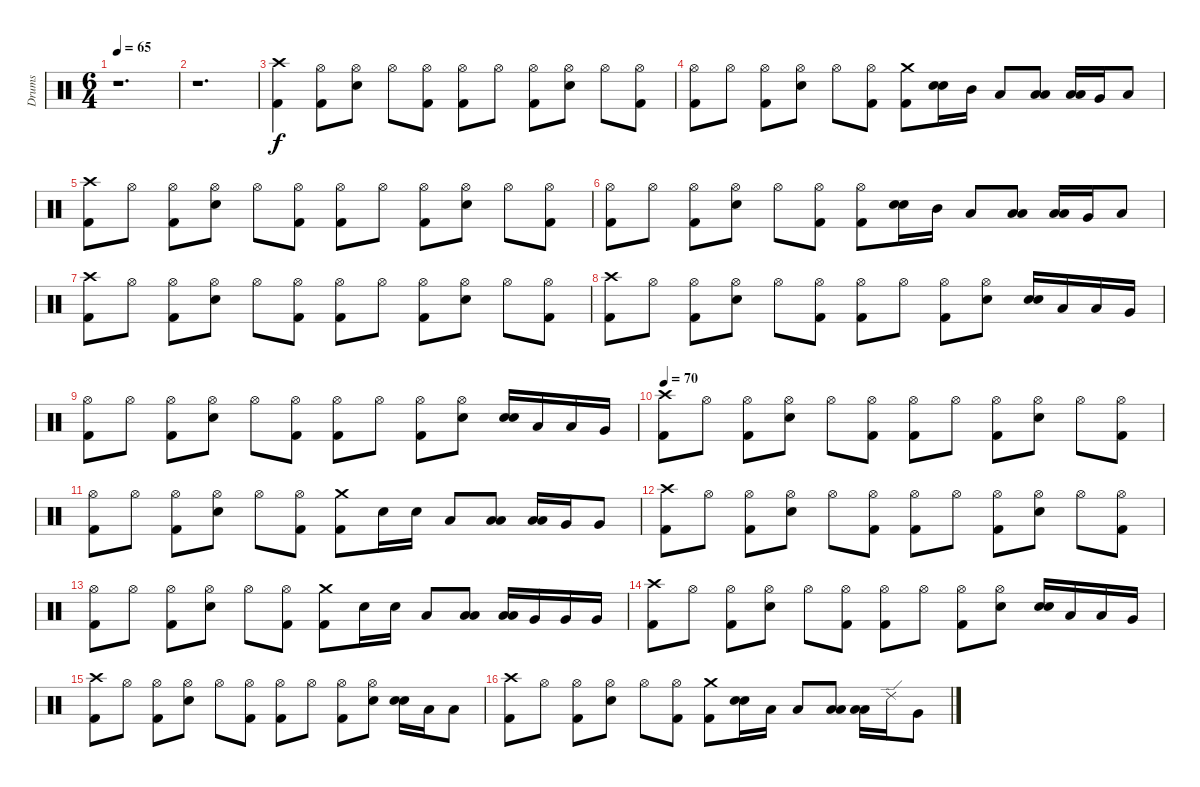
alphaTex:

\track ("Drums" "Drums") {instrument percussion}
\staff {score}
\articulation defaults
\ts (6 4)
\tempo 65
\clef neutral
\ks c
r.1{d dy f} |
r.1{d} |
("Crash high (hit)" "Kick (hit) 2").4 ("Hi-Hat (open)" "Kick (hit) 2").8 ("Hi-Hat (open)" "Electric Snare (hit)").8 "Hi-Hat (open)".8 ("Hi-Hat (open)" "Kick (hit) 2").8 ("Hi-Hat (open)" "Kick (hit) 2").8 "Hi-Hat (open)".8 ("Hi-Hat (open)" "Kick (hit) 2").8 ("Hi-Hat (open)" "Electric Snare (hit)").8 "Hi-Hat (open)".8 ("Hi-Hat (open)" "Kick (hit) 2").8 |
("Hi-Hat (open)" "Kick (hit) 2").8 "Hi-Hat (open)".8 ("Hi-Hat (open)" "Kick (hit) 2").8 ("Hi-Hat (open)" "Electric Snare (hit)").8 "Hi-Hat (open)".8 ("Hi-Hat (open)" "Kick (hit) 2").8 ("Crash medium (hit)" "Kick (hit) 2").8 ("Electric Snare (hit)" "Electric Snare (hit)").16{bu 120} "Mid Tom (hit)".16 "Low Tom (hit)".8 ("Low Tom (hit)" "Low Tom (hit)").8{bu 120} ("Low Tom (hit)" "Low Tom (hit)").16{bu 120} "Very Low Tom (hit)".16 "Low Floor Tom (hit)".8 |
("Crash high (hit)" "Kick (hit) 2").8 "Hi-Hat (open)".8 ("Hi-Hat (open)" "Kick (hit) 2").8 ("Hi-Hat (open)" "Electric Snare (hit)").8 "Hi-Hat (open)".8 ("Hi-Hat (open)" "Kick (hit) 2").8 ("Hi-Hat (open)" "Kick (hit) 2").8 "Hi-Hat (open)".8 ("Hi-Hat (open)" "Kick (hit) 2").8 ("Hi-Hat (open)" "Electric Snare (hit)").8 "Hi-Hat (open)".8 ("Hi-Hat (open)" "Kick (hit) 2").8 |
("Hi-Hat (open)" "Kick (hit) 2").8 "Hi-Hat (open)".8 ("Hi-Hat (open)" "Kick (hit) 2").8 ("Hi-Hat (open)" "Electric Snare (hit)").8 "Hi-Hat (open)".8 ("Hi-Hat (open)" "Kick (hit) 2").8 ("Hi-Hat (open)" "Kick (hit) 2").8 ("Electric Snare (hit)" "Electric Snare (hit)").16{bu 120} "Mid Tom (hit)".16 "Low Tom (hit)".8 ("Low Tom (hit)" "Low Tom (hit)").8{bu 120} ("Low Tom (hit)" "Low Tom (hit)").16{bu 120} "Very Low Tom (hit)".16 "Low Floor Tom (hit)".8 |
("Crash high (hit)" "Kick (hit) 2").8 "Hi-Hat (open)".8 ("Hi-Hat (open)" "Kick (hit) 2").8 ("Hi-Hat (open)" "Electric Snare (hit)").8 "Hi-Hat (open)".8 ("Hi-Hat (open)" "Kick (hit) 2").8 ("Hi-Hat (open)" "Kick (hit) 2").8 "Hi-Hat (open)".8 ("Hi-Hat (open)" "Kick (hit) 2").8 ("Hi-Hat (open)" "Electric Snare (hit)").8 "Hi-Hat (open)".8 ("Hi-Hat (open)" "Kick (hit) 2").8 |
("Crash high (hit)" "Kick (hit) 2").8 "Hi-Hat (open)".8 ("Hi-Hat (open)" "Kick (hit) 2").8 ("Hi-Hat (open)" "Electric Snare (hit)").8 "Hi-Hat (open)".8 ("Hi-Hat (open)" "Kick (hit) 2").8 ("Hi-Hat (open)" "Kick (hit) 2").8 "Hi-Hat (open)".8 ("Hi-Hat (open)" "Kick (hit) 2").8 ("Hi-Hat (open)" "Electric Snare (hit)").8 ("Electric Snare (hit)" "Electric Snare (hit)").16{bu 60} "Low Tom (hit)".16 "Low Tom (hit)".16 "Very Low Tom (hit)".16 |
("Hi-Hat (open)" "Kick (hit) 2").8 "Hi-Hat (open)".8 ("Hi-Hat (open)" "Kick (hit) 2").8 ("Hi-Hat (open)" "Electric Snare (hit)").8 "Hi-Hat (open)".8 ("Hi-Hat (open)" "Kick (hit) 2").8 ("Hi-Hat (open)" "Kick (hit) 2").8 "Hi-Hat (open)".8 ("Hi-Hat (open)" "Kick (hit) 2").8 ("Hi-Hat (open)" "Electric Snare (hit)").8 ("Electric Snare (hit)" "Electric Snare (hit)").16{bu 60} "Low Tom (hit)".16 "Low Tom (hit)".16 "Very Low Tom (hit)".16 |
\tempo 70
("Crash high (hit)" "Kick (hit) 2").8 "Hi-Hat (open)".8 ("Hi-Hat (open)" "Kick (hit) 2").8 ("Hi-Hat (open)" "Electric Snare (hit)").8 "Hi-Hat (open)".8 ("Hi-Hat (open)" "Kick (hit) 2").8 ("Hi-Hat (open)" "Kick (hit) 2").8 "Hi-Hat (open)".8 ("Hi-Hat (open)" "Kick (hit) 2").8 ("Hi-Hat (open)" "Electric Snare (hit)").8 "Hi-Hat (open)".8 ("Hi-Hat (open)" "Kick (hit) 2").8 |
("Hi-Hat (open)" "Kick (hit) 2").8 "Hi-Hat (open)".8 ("Hi-Hat (open)" "Kick (hit) 2").8 ("Hi-Hat (open)" "Electric Snare (hit)").8 "Hi-Hat (open)".8 ("Hi-Hat (open)" "Kick (hit) 2").8 ("Crash medium (hit)" "Kick (hit) 2").8 "Electric Snare (hit)".16 "Electric Snare (hit)".16 "Low Tom (hit)".8 ("Low Tom (hit)" "Low Tom (hit)").8{bu 60} ("Low Tom (hit)" "Low Tom (hit)").16{bu 60} "Very Low Tom (hit)".16 "Very Low Tom (hit)".8 |
("Crash high (hit)" "Kick (hit) 2").8 "Hi-Hat (open)".8 ("Hi-Hat (open)" "Kick (hit) 2").8 ("Hi-Hat (open)" "Electric Snare (hit)").8 "Hi-Hat (open)".8 ("Hi-Hat (open)" "Kick (hit) 2").8 ("Hi-Hat (open)" "Kick (hit) 2").8 "Hi-Hat (open)".8 ("Hi-Hat (open)" "Kick (hit) 2").8 ("Hi-Hat (open)" "Electric Snare (hit)").8 "Hi-Hat (open)".8 ("Hi-Hat (open)" "Kick (hit) 2").8 |
("Hi-Hat (open)" "Kick (hit) 2").8 "Hi-Hat (open)".8 ("Hi-Hat (open)" "Kick (hit) 2").8 ("Hi-Hat (open)" "Electric Snare (hit)").8 "Hi-Hat (open)".8 ("Hi-Hat (open)" "Kick (hit) 2").8 ("Crash medium (hit)" "Kick (hit) 2").8 "Electric Snare (hit)".16 "Electric Snare (hit)".16 "Low Tom (hit)".8 ("Low Tom (hit)" "Low Tom (hit)").8{bu 60} ("Low Tom (hit)" "Low Tom (hit)").16{bu 60} "Very Low Tom (hit)".16 "Very Low Tom (hit)".16 "Very Low Tom (hit)".16 |
("Crash high (hit)" "Kick (hit) 2").8 "Hi-Hat (open)".8 ("Hi-Hat (open)" "Kick (hit) 2").8 ("Hi-Hat (open)" "Electric Snare (hit)").8 "Hi-Hat (open)".8 ("Hi-Hat (open)" "Kick (hit) 2").8 ("Hi-Hat (open)" "Kick (hit) 2").8 "Hi-Hat (open)".8 ("Hi-Hat (open)" "Kick (hit) 2").8 ("Hi-Hat (open)" "Electric Snare (hit)").8 ("Electric Snare (hit)" "Electric Snare (hit)").16{bu 60} "Low Tom (hit)".16 "Low Tom (hit)".16 "Very Low Tom (hit)".16 |
("Crash high (hit)" "Kick (hit) 2").8 "Hi-Hat (open)".8 ("Hi-Hat (open)" "Kick (hit) 2").8 ("Hi-Hat (open)" "Electric Snare (hit)").8 "Hi-Hat (open)".8 ("Hi-Hat (open)" "Kick (hit) 2").8 ("Hi-Hat (open)" "Kick (hit) 2").8 "Hi-Hat (open)".8 ("Hi-Hat (open)" "Kick (hit) 2").8 ("Hi-Hat (open)" "Electric Snare (hit)").8 ("Electric Snare (hit)" "Electric Snare (hit)").16{bu 60} "Low Tom (hit)".16 "Low Tom (hit)".8 |
("Crash high (hit)" "Kick (hit) 2").8 "Hi-Hat (open)".8 ("Hi-Hat (open)" "Kick (hit) 2").8 ("Hi-Hat (open)" "Electric Snare (hit)").8 "Hi-Hat (open)".8 ("Hi-Hat (open)" "Kick (hit) 2").8 ("Crash medium (hit)" "Kick (hit) 2").8 ("Electric Snare (hit)" "Electric Snare (hit)").16{bu 60} "Low Tom (hit)".16 "Low Tom (hit)".8 ("Low Tom (hit)" "Low Tom (hit)").8{bu 60} ("Low Tom (hit)" "Low Tom (hit)").16{bu 60} "Ride (edge) 2".16 "Very Low Tom (hit)".8
